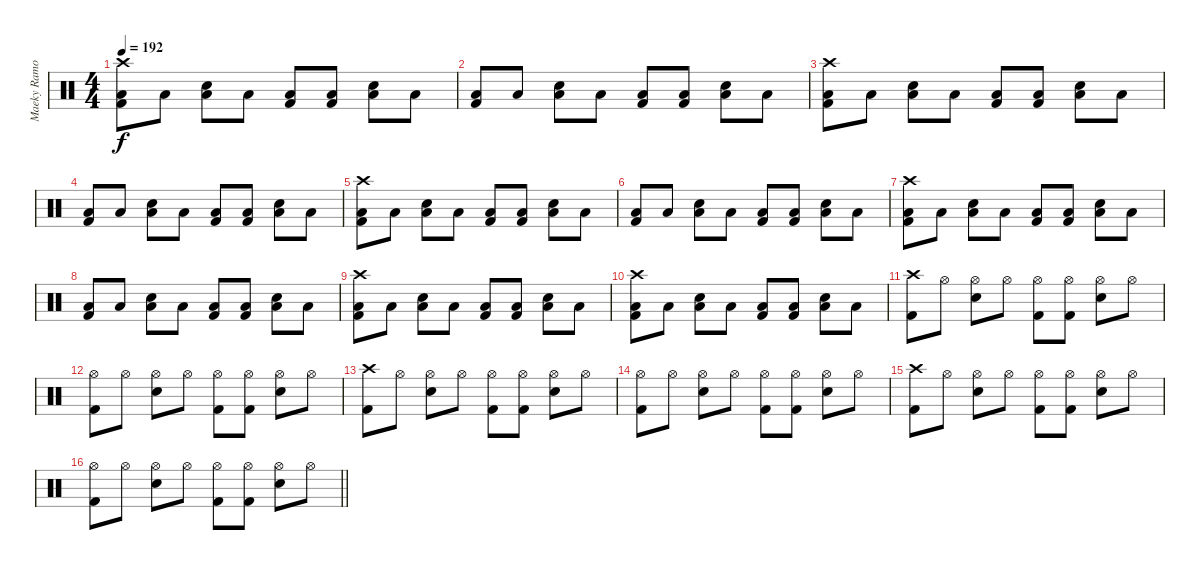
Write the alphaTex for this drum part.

\track ("Maeky Ramone" "Maeky Ramo") {instrument percussion}
\staff {score}
\articulation defaults
\ts (4 4)
\tempo 192
\clef neutral
\ks c
("Crash high (hit)" "Kick (hit) 2" "Low Floor Tom (hit)").8{dy f} "Low Floor Tom (hit)".8 ("Snare (hit) 2" "Low Floor Tom (hit)").8 "Low Floor Tom (hit)".8 ("Kick (hit) 2" "Low Floor Tom (hit)").8 ("Kick (hit) 2" "Low Floor Tom (hit)").8 ("Snare (hit) 2" "Low Floor Tom (hit)").8 "Low Floor Tom (hit)".8 |
("Kick (hit) 2" "Low Floor Tom (hit)").8 "Low Floor Tom (hit)".8 ("Snare (hit) 2" "Low Floor Tom (hit)").8 "Low Floor Tom (hit)".8 ("Kick (hit) 2" "Low Floor Tom (hit)").8 ("Kick (hit) 2" "Low Floor Tom (hit)").8 ("Snare (hit) 2" "Low Floor Tom (hit)").8 "Low Floor Tom (hit)".8 |
("Crash high (hit)" "Kick (hit) 2" "Low Floor Tom (hit)").8 "Low Floor Tom (hit)".8 ("Snare (hit) 2" "Low Floor Tom (hit)").8 "Low Floor Tom (hit)".8 ("Kick (hit) 2" "Low Floor Tom (hit)").8 ("Kick (hit) 2" "Low Floor Tom (hit)").8 ("Snare (hit) 2" "Low Floor Tom (hit)").8 "Low Floor Tom (hit)".8 |
("Kick (hit) 2" "Low Floor Tom (hit)").8 "Low Floor Tom (hit)".8 ("Snare (hit) 2" "Low Floor Tom (hit)").8 "Low Floor Tom (hit)".8 ("Kick (hit) 2" "Low Floor Tom (hit)").8 ("Kick (hit) 2" "Low Floor Tom (hit)").8 ("Snare (hit) 2" "Low Floor Tom (hit)").8 "Low Floor Tom (hit)".8 |
("Crash high (hit)" "Kick (hit) 2" "Low Floor Tom (hit)").8 "Low Floor Tom (hit)".8 ("Snare (hit) 2" "Low Floor Tom (hit)").8 "Low Floor Tom (hit)".8 ("Kick (hit) 2" "Low Floor Tom (hit)").8 ("Kick (hit) 2" "Low Floor Tom (hit)").8 ("Snare (hit) 2" "Low Floor Tom (hit)").8 "Low Floor Tom (hit)".8 |
("Kick (hit) 2" "Low Floor Tom (hit)").8 "Low Floor Tom (hit)".8 ("Snare (hit) 2" "Low Floor Tom (hit)").8 "Low Floor Tom (hit)".8 ("Kick (hit) 2" "Low Floor Tom (hit)").8 ("Kick (hit) 2" "Low Floor Tom (hit)").8 ("Snare (hit) 2" "Low Floor Tom (hit)").8 "Low Floor Tom (hit)".8 |
("Crash high (hit)" "Kick (hit) 2" "Low Floor Tom (hit)").8 "Low Floor Tom (hit)".8 ("Snare (hit) 2" "Low Floor Tom (hit)").8 "Low Floor Tom (hit)".8 ("Kick (hit) 2" "Low Floor Tom (hit)").8 ("Kick (hit) 2" "Low Floor Tom (hit)").8 ("Snare (hit) 2" "Low Floor Tom (hit)").8 "Low Floor Tom (hit)".8 |
("Kick (hit) 2" "Low Floor Tom (hit)").8 "Low Floor Tom (hit)".8 ("Snare (hit) 2" "Low Floor Tom (hit)").8 "Low Floor Tom (hit)".8 ("Kick (hit) 2" "Low Floor Tom (hit)").8 ("Kick (hit) 2" "Low Floor Tom (hit)").8 ("Snare (hit) 2" "Low Floor Tom (hit)").8 "Low Floor Tom (hit)".8 |
("Crash high (hit)" "Kick (hit) 2" "Low Floor Tom (hit)").8 "Low Floor Tom (hit)".8 ("Snare (hit) 2" "Low Floor Tom (hit)").8 "Low Floor Tom (hit)".8 ("Kick (hit) 2" "Low Floor Tom (hit)").8 ("Kick (hit) 2" "Low Floor Tom (hit)").8 ("Snare (hit) 2" "Low Floor Tom (hit)").8 "Low Floor Tom (hit)".8 |
("Crash high (hit)" "Kick (hit) 2" "Low Floor Tom (hit)").8 "Low Floor Tom (hit)".8 ("Snare (hit) 2" "Low Floor Tom (hit)").8 "Low Floor Tom (hit)".8 ("Kick (hit) 2" "Low Floor Tom (hit)").8 ("Kick (hit) 2" "Low Floor Tom (hit)").8 ("Snare (hit) 2" "Low Floor Tom (hit)").8 "Low Floor Tom (hit)".8 |
("Crash high (hit)" "Kick (hit) 2").8 "Hi-Hat (open)".8 ("Hi-Hat (open)" "Snare (hit) 2").8 "Hi-Hat (open)".8 ("Hi-Hat (open)" "Kick (hit) 2").8 ("Hi-Hat (open)" "Kick (hit) 2").8 ("Hi-Hat (open)" "Snare (hit) 2").8 "Hi-Hat (open)".8 |
("Hi-Hat (open)" "Kick (hit) 2").8 "Hi-Hat (open)".8 ("Hi-Hat (open)" "Snare (hit) 2").8 "Hi-Hat (open)".8 ("Hi-Hat (open)" "Kick (hit) 2").8 ("Hi-Hat (open)" "Kick (hit) 2").8 ("Hi-Hat (open)" "Snare (hit) 2").8 "Hi-Hat (open)".8 |
("Crash high (hit)" "Kick (hit) 2").8 "Hi-Hat (open)".8 ("Hi-Hat (open)" "Snare (hit) 2").8 "Hi-Hat (open)".8 ("Hi-Hat (open)" "Kick (hit) 2").8 ("Hi-Hat (open)" "Kick (hit) 2").8 ("Hi-Hat (open)" "Snare (hit) 2").8 "Hi-Hat (open)".8 |
("Hi-Hat (open)" "Kick (hit) 2").8 "Hi-Hat (open)".8 ("Hi-Hat (open)" "Snare (hit) 2").8 "Hi-Hat (open)".8 ("Hi-Hat (open)" "Kick (hit) 2").8 ("Hi-Hat (open)" "Kick (hit) 2").8 ("Hi-Hat (open)" "Snare (hit) 2").8 "Hi-Hat (open)".8 |
("Crash high (hit)" "Kick (hit) 2").8 "Hi-Hat (open)".8 ("Hi-Hat (open)" "Snare (hit) 2").8 "Hi-Hat (open)".8 ("Hi-Hat (open)" "Kick (hit) 2").8 ("Hi-Hat (open)" "Kick (hit) 2").8 ("Hi-Hat (open)" "Snare (hit) 2").8 "Hi-Hat (open)".8 |
\barLineRight lightlight
("Hi-Hat (open)" "Kick (hit) 2").8 "Hi-Hat (open)".8 ("Hi-Hat (open)" "Snare (hit) 2").8 "Hi-Hat (open)".8 ("Hi-Hat (open)" "Kick (hit) 2").8 ("Hi-Hat (open)" "Kick (hit) 2").8 ("Hi-Hat (open)" "Snare (hit) 2").8 "Hi-Hat (open)".8
